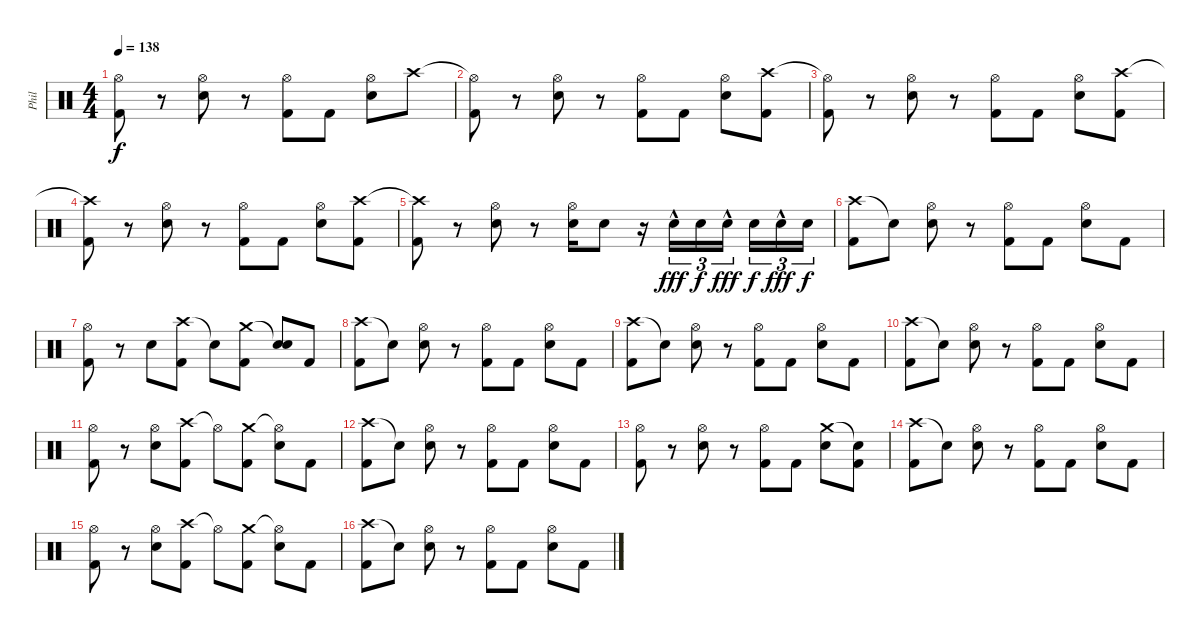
\track ("Phil" "Phil") {instrument percussion}
\staff {score}
\articulation defaults
\ts (4 4)
\tempo 138
\clef neutral
\ks c
("Hi-Hat (open)" "Kick (hit) 2").8{dy f} r.8 ("Hi-Hat (open)" "Snare (hit) 2").8 r.8 ("Hi-Hat (open)" "Kick (hit) 2").8 "Kick (hit) 2".8 ("Hi-Hat (open)" "Snare (hit) 2").8 "Crash high (hit)".8 |
("Hi-Hat (open)"{t} "Kick (hit) 2").8 r.8 ("Hi-Hat (open)" "Snare (hit) 2").8 r.8 ("Hi-Hat (open)" "Kick (hit) 2").8 "Kick (hit) 2".8 ("Hi-Hat (open)" "Snare (hit) 2").8 ("Crash high (hit)" "Kick (hit) 2").8 |
("Hi-Hat (open)"{t} "Kick (hit) 2").8 r.8 ("Hi-Hat (open)" "Snare (hit) 2").8 r.8 ("Hi-Hat (open)" "Kick (hit) 2").8 "Kick (hit) 2".8 ("Hi-Hat (open)" "Snare (hit) 2").8 ("Crash high (hit)" "Kick (hit) 2").8 |
("Crash high (hit)"{t} "Kick (hit) 2").8 r.8 ("Hi-Hat (open)" "Snare (hit) 2").8 r.8 ("Hi-Hat (open)" "Kick (hit) 2").8 "Kick (hit) 2".8 ("Hi-Hat (open)" "Snare (hit) 2").8 ("Crash high (hit)" "Kick (hit) 2").8 |
("Crash high (hit)"{t} "Kick (hit) 2").8 r.8 ("Hi-Hat (open)" "Snare (hit) 2").8 r.8 ("Hi-Hat (open)" "Snare (hit) 2").16 "Snare (hit) 2".8 r.16 "Snare (hit) 2"{hac}.16{tu (3 2) dy fff} "Snare (hit) 2".16{tu (3 2) dy f} "Snare (hit) 2"{hac}.16{tu (3 2) dy fff beam splitsecondary} "Snare (hit) 2".16{tu (3 2) dy f} "Snare (hit) 2"{hac}.16{tu (3 2) dy fff} "Snare (hit) 2".16{tu (3 2) dy f} |
("Crash high (hit)" "Kick (hit) 2").8 "Snare (hit)"{t}.8 ("Hi-Hat (open)" "Snare (hit) 2").8 r.8 ("Hi-Hat (open)" "Kick (hit) 2").8 "Kick (hit) 2".8 ("Hi-Hat (open)" "Snare (hit) 2").8 "Kick (hit) 2".8 |
("Hi-Hat (open)" "Kick (hit) 2").8 r.8 "Snare (hit) 2".8 ("Crash high (hit)" "Kick (hit) 2").8 "Snare (hit)"{t}.8 ("Crash medium (hit)" "Kick (hit) 2").8 ("Snare (hit)"{t} "Snare (hit) 2").8 "Kick (hit) 2".8 |
("Crash high (hit)" "Kick (hit) 2").8 "Snare (hit)"{t}.8 ("Hi-Hat (open)" "Snare (hit) 2").8 r.8 ("Hi-Hat (open)" "Kick (hit) 2").8 "Kick (hit) 2".8 ("Hi-Hat (open)" "Snare (hit) 2").8 "Kick (hit) 2".8 |
("Crash high (hit)" "Kick (hit) 2").8 "Snare (hit)"{t}.8 ("Hi-Hat (open)" "Snare (hit) 2").8 r.8 ("Hi-Hat (open)" "Kick (hit) 2").8 "Kick (hit) 2".8 ("Hi-Hat (open)" "Snare (hit) 2").8 "Kick (hit) 2".8 |
("Crash high (hit)" "Kick (hit) 2").8 "Snare (hit)"{t}.8 ("Hi-Hat (open)" "Snare (hit) 2").8 r.8 ("Hi-Hat (open)" "Kick (hit) 2").8 "Kick (hit) 2".8 ("Hi-Hat (open)" "Snare (hit) 2").8 "Kick (hit) 2".8 |
("Hi-Hat (open)" "Kick (hit) 2").8 r.8 ("Hi-Hat (open)" "Snare (hit) 2").8 ("Crash high (hit)" "Kick (hit) 2").8 "Hi-Hat (open)"{t}.8 ("Crash medium (hit)" "Kick (hit) 2").8 ("Hi-Hat (open)"{t} "Snare (hit) 2").8 "Kick (hit) 2".8 |
("Crash high (hit)" "Kick (hit) 2").8 "Snare (hit)"{t}.8 ("Hi-Hat (open)" "Snare (hit) 2").8 r.8 ("Hi-Hat (open)" "Kick (hit) 2").8 "Kick (hit) 2".8 ("Hi-Hat (open)" "Snare (hit) 2").8 "Kick (hit) 2".8 |
("Hi-Hat (open)" "Kick (hit) 2").8 r.8 ("Hi-Hat (open)" "Snare (hit) 2").8 r.8 ("Hi-Hat (open)" "Kick (hit) 2").8 "Kick (hit) 2".8 ("Crash medium (hit)" "Snare (hit) 2").8 ("Snare (hit)"{t} "Kick (hit) 2").8 |
("Crash high (hit)" "Kick (hit) 2").8 "Snare (hit)"{t}.8 ("Hi-Hat (open)" "Snare (hit) 2").8 r.8 ("Hi-Hat (open)" "Kick (hit) 2").8 "Kick (hit) 2".8 ("Hi-Hat (open)" "Snare (hit) 2").8 "Kick (hit) 2".8 |
("Hi-Hat (open)" "Kick (hit) 2").8 r.8 ("Hi-Hat (open)" "Snare (hit) 2").8 ("Crash high (hit)" "Kick (hit) 2").8 "Hi-Hat (open)"{t}.8 ("Crash medium (hit)" "Kick (hit) 2").8 ("Hi-Hat (open)"{t} "Snare (hit) 2").8 "Kick (hit) 2".8 |
("Crash high (hit)" "Kick (hit) 2").8 "Snare (hit)"{t}.8 ("Hi-Hat (open)" "Snare (hit) 2").8 r.8 ("Hi-Hat (open)" "Kick (hit) 2").8 "Kick (hit) 2".8 ("Hi-Hat (open)" "Snare (hit) 2").8 "Kick (hit) 2".8
